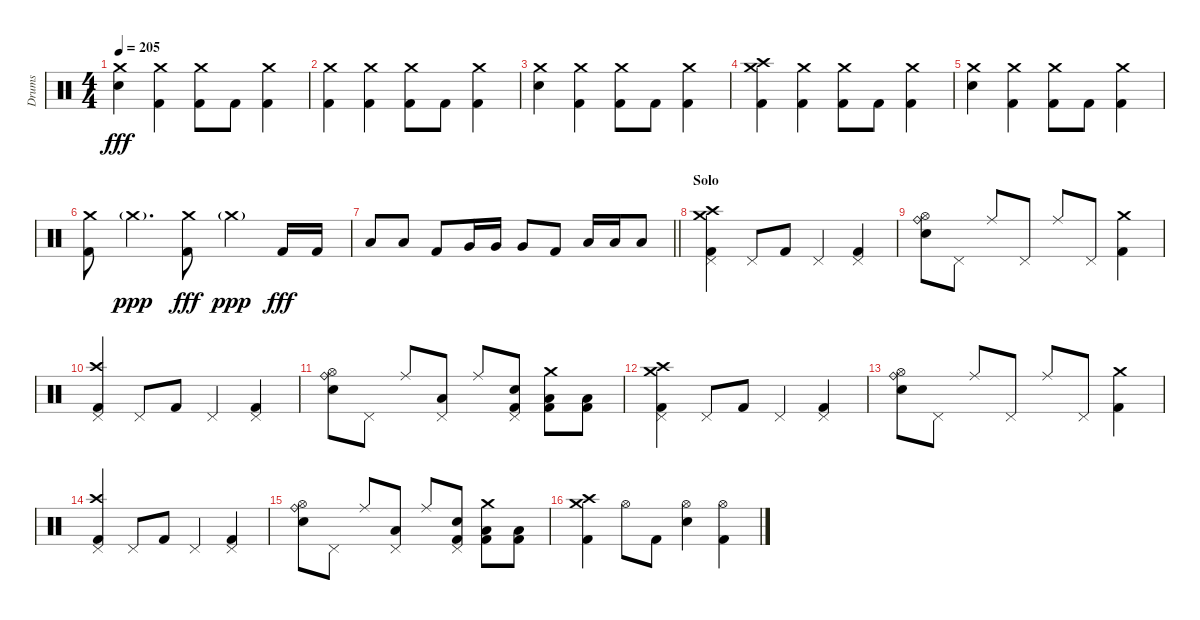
\track ("Drums" "Drums") {instrument percussion}
\staff {score}
\articulation defaults
\ts (4 4)
\tempo 205
\clef neutral
\ks c
("Crash medium (hit)" "Electric Snare (hit)").4{dy fff} ("Crash medium (hit)" "Kick (hit) 2").4 ("Crash medium (hit)" "Kick (hit) 2").8 "Kick (hit) 2".8 ("Crash medium (hit)" "Kick (hit) 2").4 |
("Crash medium (hit)" "Kick (hit) 2").4 ("Crash medium (hit)" "Kick (hit) 2").4 ("Crash medium (hit)" "Kick (hit) 2").8 "Kick (hit) 2".8 ("Crash medium (hit)" "Kick (hit) 2").4 |
("Crash medium (hit)" "Electric Snare (hit)").4 ("Crash medium (hit)" "Kick (hit) 2").4 ("Crash medium (hit)" "Kick (hit) 2").8 "Kick (hit) 2".8 ("Crash medium (hit)" "Kick (hit) 2").4 |
("Crash medium (hit)" "Crash high (hit)" "Kick (hit) 2").4 ("Crash medium (hit)" "Kick (hit) 2").4 ("Crash medium (hit)" "Kick (hit) 2").8 "Kick (hit) 2".8 ("Crash medium (hit)" "Kick (hit) 2").4 |
("Crash medium (hit)" "Electric Snare (hit)").4 ("Crash medium (hit)" "Kick (hit) 2").4 ("Crash medium (hit)" "Kick (hit) 2").8 "Kick (hit) 2".8 ("Crash medium (hit)" "Kick (hit) 2").4 |
("Crash medium (hit)" "Kick (hit) 2").8 "Crash medium (hit)"{g}.4{d dy ppp} ("Crash medium (hit)" "Kick (hit) 2").8{dy fff} "Crash medium (hit)"{g}.4{dy ppp} "Kick (hit) 2".16{dy fff} "Kick (hit) 2".16 |
\barLineRight lightlight "Low Tom (hit)".8 "Low Tom (hit)".8 "Kick (hit) 2".8 "Very Low Tom (hit)".16 "Very Low Tom (hit)".16 "Very Low Tom (hit)".8 "Kick (hit) 2".8 "Low Floor Tom (hit)".16 "Low Floor Tom (hit)".16 "Low Floor Tom (hit)".8
|
\section ("" "Solo")
("Crash medium (hit)" "Crash high (hit)" "Pedal Hi-Hat (hit)" "Kick (hit) 2").4 "Pedal Hi-Hat (hit)".8 "Kick (hit) 2".8 "Pedal Hi-Hat (hit)".4 ("Pedal Hi-Hat (hit)" "Kick (hit) 2").4 |
("Ride (bell)" "Hi-Hat (open)" "Electric Snare (hit)").8 "Pedal Hi-Hat (hit)".8 "Ride (middle)".8 "Pedal Hi-Hat (hit)".8 "Ride (middle)".8 "Pedal Hi-Hat (hit)".8 ("Crash medium (hit)" "Kick (hit) 2").4 |
("Crash high (hit)" "Pedal Hi-Hat (hit)" "Kick (hit) 2").4 "Pedal Hi-Hat (hit)".8 "Kick (hit) 2".8 "Pedal Hi-Hat (hit)".4 ("Pedal Hi-Hat (hit)" "Kick (hit) 2").4 |
("Ride (bell)" "Hi-Hat (open)" "Electric Snare (hit)").8 "Pedal Hi-Hat (hit)".8 "Ride (middle)".8 ("Pedal Hi-Hat (hit)" "Low Tom (hit)").8 "Ride (middle)".8 ("Pedal Hi-Hat (hit)" "Electric Snare (hit)" "Kick (hit) 2").8 ("Crash medium (hit)" "Low Floor Tom (hit)" "Kick (hit) 2").8 ("Low Floor Tom (hit)" "Kick (hit) 2").8 |
("Crash medium (hit)" "Crash high (hit)" "Pedal Hi-Hat (hit)" "Kick (hit) 2").4 "Pedal Hi-Hat (hit)".8 "Kick (hit) 2".8 "Pedal Hi-Hat (hit)".4 ("Pedal Hi-Hat (hit)" "Kick (hit) 2").4 |
("Ride (bell)" "Hi-Hat (open)" "Electric Snare (hit)").8 "Pedal Hi-Hat (hit)".8 "Ride (middle)".8 "Pedal Hi-Hat (hit)".8 "Ride (middle)".8 "Pedal Hi-Hat (hit)".8 ("Crash medium (hit)" "Kick (hit) 2").4 |
("Crash high (hit)" "Pedal Hi-Hat (hit)" "Kick (hit) 2").4 "Pedal Hi-Hat (hit)".8 "Kick (hit) 2".8 "Pedal Hi-Hat (hit)".4 ("Pedal Hi-Hat (hit)" "Kick (hit) 2").4 |
("Ride (bell)" "Hi-Hat (open)" "Electric Snare (hit)").8 "Pedal Hi-Hat (hit)".8 "Ride (middle)".8 ("Pedal Hi-Hat (hit)" "Low Tom (hit)").8 "Ride (middle)".8 ("Pedal Hi-Hat (hit)" "Electric Snare (hit)" "Kick (hit) 2").8 ("Crash medium (hit)" "Low Floor Tom (hit)" "Kick (hit) 2").8 ("Low Floor Tom (hit)" "Kick (hit) 2").8 |
("Crash medium (hit)" "Crash high (hit)" "Kick (hit) 2").4 "Hi-Hat (open)".8 "Kick (hit) 2".8 ("Hi-Hat (open)" "Electric Snare (hit)").4 ("Hi-Hat (open)" "Kick (hit) 2").4
